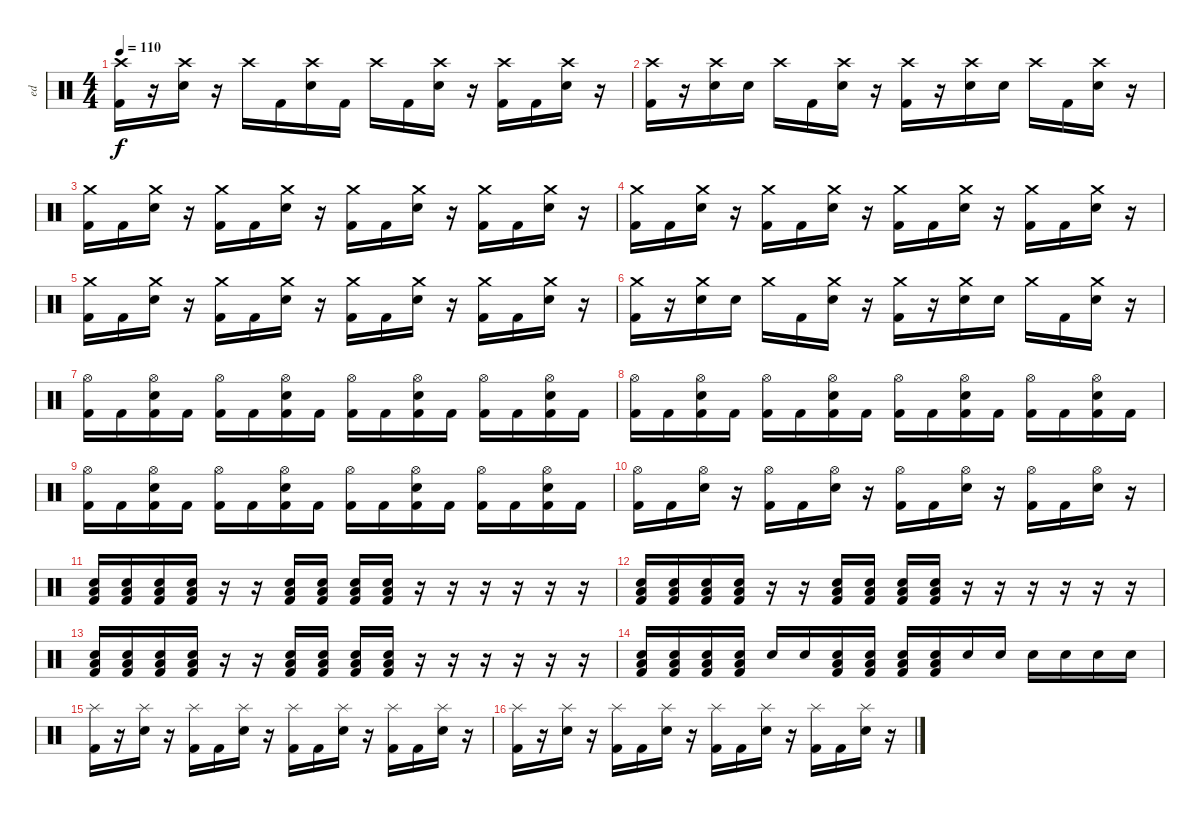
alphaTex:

\track ("ed" "ed") {instrument percussion}
\staff {score}
\articulation defaults
\ts (4 4)
\tempo 110
\clef neutral
\ks c
("Crash high (hit)" "Kick (hit) 2").16{dy f} r.16 ("Crash high (hit)" "Electric Snare (hit)").16 r.16 "Crash high (hit)".16 "Kick (hit) 2".16 ("Crash high (hit)" "Electric Snare (hit)").16 "Kick (hit) 2".16 "Crash high (hit)".16 "Kick (hit) 2".16 ("Crash high (hit)" "Electric Snare (hit)").16 r.16 ("Crash high (hit)" "Kick (hit) 2").16 "Kick (hit) 2".16 ("Crash high (hit)" "Electric Snare (hit)").16 r.16 |
("Crash high (hit)" "Kick (hit) 2").16 r.16 ("Crash high (hit)" "Electric Snare (hit)").16 "Electric Snare (hit)".16 "Crash high (hit)".16 "Kick (hit) 2".16 ("Crash high (hit)" "Electric Snare (hit)").16 r.16 ("Crash high (hit)" "Kick (hit) 2").16 r.16 ("Crash high (hit)" "Electric Snare (hit)").16 "Electric Snare (hit)".16 "Crash high (hit)".16 "Kick (hit) 2".16 ("Crash high (hit)" "Electric Snare (hit)").16 r.16 |
("Crash medium (hit)" "Kick (hit) 2").16 "Kick (hit) 2".16 ("Crash medium (hit)" "Electric Snare (hit)").16 r.16 ("Crash medium (hit)" "Kick (hit) 2").16 "Kick (hit) 2".16 ("Crash medium (hit)" "Electric Snare (hit)").16 r.16 ("Crash medium (hit)" "Kick (hit) 2").16 "Kick (hit) 2".16 ("Crash medium (hit)" "Electric Snare (hit)").16 r.16 ("Crash medium (hit)" "Kick (hit) 2").16 "Kick (hit) 2".16 ("Crash medium (hit)" "Electric Snare (hit)").16 r.16 |
("Crash medium (hit)" "Kick (hit) 2").16 "Kick (hit) 2".16 ("Crash medium (hit)" "Electric Snare (hit)").16 r.16 ("Crash medium (hit)" "Kick (hit) 2").16 "Kick (hit) 2".16 ("Crash medium (hit)" "Electric Snare (hit)").16 r.16 ("Crash medium (hit)" "Kick (hit) 2").16 "Kick (hit) 2".16 ("Crash medium (hit)" "Electric Snare (hit)").16 r.16 ("Crash medium (hit)" "Kick (hit) 2").16 "Kick (hit) 2".16 ("Crash medium (hit)" "Electric Snare (hit)").16 r.16 |
("Crash medium (hit)" "Kick (hit) 2").16 "Kick (hit) 2".16 ("Crash medium (hit)" "Electric Snare (hit)").16 r.16 ("Crash medium (hit)" "Kick (hit) 2").16 "Kick (hit) 2".16 ("Crash medium (hit)" "Electric Snare (hit)").16 r.16 ("Crash medium (hit)" "Kick (hit) 2").16 "Kick (hit) 2".16 ("Crash medium (hit)" "Electric Snare (hit)").16 r.16 ("Crash medium (hit)" "Kick (hit) 2").16 "Kick (hit) 2".16 ("Crash medium (hit)" "Electric Snare (hit)").16 r.16 |
("Crash medium (hit)" "Kick (hit) 2").16 r.16 ("Crash medium (hit)" "Electric Snare (hit)").16 "Electric Snare (hit)".16 "Crash medium (hit)".16 "Kick (hit) 2".16 ("Crash medium (hit)" "Electric Snare (hit)").16 r.16 ("Crash medium (hit)" "Kick (hit) 2").16 r.16 ("Crash medium (hit)" "Electric Snare (hit)").16 "Electric Snare (hit)".16 "Crash medium (hit)".16 "Kick (hit) 2".16 ("Crash medium (hit)" "Electric Snare (hit)").16 r.16 |
("Hi-Hat (open)" "Kick (hit) 2").16 "Kick (hit) 2".16 ("Hi-Hat (open)" "Electric Snare (hit)" "Kick (hit) 2").16 "Kick (hit) 2".16 ("Hi-Hat (open)" "Kick (hit) 2").16 "Kick (hit) 2".16 ("Hi-Hat (open)" "Electric Snare (hit)" "Kick (hit) 2").16 "Kick (hit) 2".16 ("Hi-Hat (open)" "Kick (hit) 2").16 "Kick (hit) 2".16 ("Hi-Hat (open)" "Electric Snare (hit)" "Kick (hit) 2").16 "Kick (hit) 2".16 ("Hi-Hat (open)" "Kick (hit) 2").16 "Kick (hit) 2".16 ("Hi-Hat (open)" "Electric Snare (hit)" "Kick (hit) 2").16 "Kick (hit) 2".16 |
("Hi-Hat (open)" "Kick (hit) 2").16 "Kick (hit) 2".16 ("Hi-Hat (open)" "Electric Snare (hit)" "Kick (hit) 2").16 "Kick (hit) 2".16 ("Hi-Hat (open)" "Kick (hit) 2").16 "Kick (hit) 2".16 ("Hi-Hat (open)" "Electric Snare (hit)" "Kick (hit) 2").16 "Kick (hit) 2".16 ("Hi-Hat (open)" "Kick (hit) 2").16 "Kick (hit) 2".16 ("Hi-Hat (open)" "Electric Snare (hit)" "Kick (hit) 2").16 "Kick (hit) 2".16 ("Hi-Hat (open)" "Kick (hit) 2").16 "Kick (hit) 2".16 ("Hi-Hat (open)" "Electric Snare (hit)" "Kick (hit) 2").16 "Kick (hit) 2".16 |
("Hi-Hat (open)" "Kick (hit) 2").16 "Kick (hit) 2".16 ("Hi-Hat (open)" "Electric Snare (hit)" "Kick (hit) 2").16 "Kick (hit) 2".16 ("Hi-Hat (open)" "Kick (hit) 2").16 "Kick (hit) 2".16 ("Hi-Hat (open)" "Electric Snare (hit)" "Kick (hit) 2").16 "Kick (hit) 2".16 ("Hi-Hat (open)" "Kick (hit) 2").16 "Kick (hit) 2".16 ("Hi-Hat (open)" "Electric Snare (hit)" "Kick (hit) 2").16 "Kick (hit) 2".16 ("Hi-Hat (open)" "Kick (hit) 2").16 "Kick (hit) 2".16 ("Hi-Hat (open)" "Electric Snare (hit)" "Kick (hit) 2").16 "Kick (hit) 2".16 |
("Hi-Hat (open)" "Kick (hit) 2").16 "Kick (hit) 2".16 ("Hi-Hat (open)" "Electric Snare (hit)").16 r.16 ("Hi-Hat (open)" "Kick (hit) 2").16 "Kick (hit) 2".16 ("Hi-Hat (open)" "Electric Snare (hit)").16 r.16 ("Hi-Hat (open)" "Kick (hit) 2").16 "Kick (hit) 2".16 ("Hi-Hat (open)" "Electric Snare (hit)").16 r.16 ("Hi-Hat (open)" "Kick (hit) 2").16 "Kick (hit) 2".16 ("Hi-Hat (open)" "Electric Snare (hit)").16 r.16 |
("Low Floor Tom (hit)" "Electric Snare (hit)" "Kick (hit) 2").16 ("Low Floor Tom (hit)" "Electric Snare (hit)" "Kick (hit) 2").16 ("Low Floor Tom (hit)" "Electric Snare (hit)" "Kick (hit) 2").16 ("Low Floor Tom (hit)" "Electric Snare (hit)" "Kick (hit) 2").16 r.16 r.16 ("Low Floor Tom (hit)" "Electric Snare (hit)" "Kick (hit) 2").16 ("Low Floor Tom (hit)" "Electric Snare (hit)" "Kick (hit) 2").16 ("Low Floor Tom (hit)" "Electric Snare (hit)" "Kick (hit) 2").16 ("Low Floor Tom (hit)" "Electric Snare (hit)" "Kick (hit) 2").16 r.16 r.16 r.16 r.16 r.16 r.16 |
("Low Floor Tom (hit)" "Electric Snare (hit)" "Kick (hit) 2").16 ("Low Floor Tom (hit)" "Electric Snare (hit)" "Kick (hit) 2").16 ("Low Floor Tom (hit)" "Electric Snare (hit)" "Kick (hit) 2").16 ("Low Floor Tom (hit)" "Electric Snare (hit)" "Kick (hit) 2").16 r.16 r.16 ("Low Floor Tom (hit)" "Electric Snare (hit)" "Kick (hit) 2").16 ("Low Floor Tom (hit)" "Electric Snare (hit)" "Kick (hit) 2").16 ("Low Floor Tom (hit)" "Electric Snare (hit)" "Kick (hit) 2").16 ("Low Floor Tom (hit)" "Electric Snare (hit)" "Kick (hit) 2").16 r.16 r.16 r.16 r.16 r.16 r.16 |
("Low Floor Tom (hit)" "Electric Snare (hit)" "Kick (hit) 2").16 ("Low Floor Tom (hit)" "Electric Snare (hit)" "Kick (hit) 2").16 ("Low Floor Tom (hit)" "Electric Snare (hit)" "Kick (hit) 2").16 ("Low Floor Tom (hit)" "Electric Snare (hit)" "Kick (hit) 2").16 r.16 r.16 ("Low Floor Tom (hit)" "Electric Snare (hit)" "Kick (hit) 2").16 ("Low Floor Tom (hit)" "Electric Snare (hit)" "Kick (hit) 2").16 ("Low Floor Tom (hit)" "Electric Snare (hit)" "Kick (hit) 2").16 ("Low Floor Tom (hit)" "Electric Snare (hit)" "Kick (hit) 2").16 r.16 r.16 r.16 r.16 r.16 r.16 |
("Low Floor Tom (hit)" "Electric Snare (hit)" "Kick (hit) 2").16 ("Low Floor Tom (hit)" "Electric Snare (hit)" "Kick (hit) 2").16 ("Low Floor Tom (hit)" "Electric Snare (hit)" "Kick (hit) 2").16 ("Low Floor Tom (hit)" "Electric Snare (hit)" "Kick (hit) 2").16 "Electric Snare (hit)".16 "Electric Snare (hit)".16 ("Low Floor Tom (hit)" "Electric Snare (hit)" "Kick (hit) 2").16 ("Low Floor Tom (hit)" "Electric Snare (hit)" "Kick (hit) 2").16 ("Low Floor Tom (hit)" "Electric Snare (hit)" "Kick (hit) 2").16 ("Low Floor Tom (hit)" "Electric Snare (hit)" "Kick (hit) 2").16 "Electric Snare (hit)".16 "Electric Snare (hit)".16 "Electric Snare (hit)".16 "Electric Snare (hit)".16 "Electric Snare (hit)".16 "Electric Snare (hit)".16 |
("Splash (hit)" "Kick (hit) 2").16 r.16 ("Splash (hit)" "Electric Snare (hit)").16 r.16 ("Splash (hit)" "Kick (hit) 2").16 "Kick (hit) 2".16 ("Splash (hit)" "Electric Snare (hit)").16 r.16 ("Splash (hit)" "Kick (hit) 2").16 "Kick (hit) 2".16 ("Splash (hit)" "Electric Snare (hit)").16 r.16 ("Splash (hit)" "Kick (hit) 2").16 "Kick (hit) 2".16 ("Splash (hit)" "Electric Snare (hit)").16 r.16 |
("Splash (hit)" "Kick (hit) 2").16 r.16 ("Splash (hit)" "Electric Snare (hit)").16 r.16 ("Splash (hit)" "Kick (hit) 2").16 "Kick (hit) 2".16 ("Splash (hit)" "Electric Snare (hit)").16 r.16 ("Splash (hit)" "Kick (hit) 2").16 "Kick (hit) 2".16 ("Splash (hit)" "Electric Snare (hit)").16 r.16 ("Splash (hit)" "Kick (hit) 2").16 "Kick (hit) 2".16 ("Splash (hit)" "Electric Snare (hit)").16 r.16
